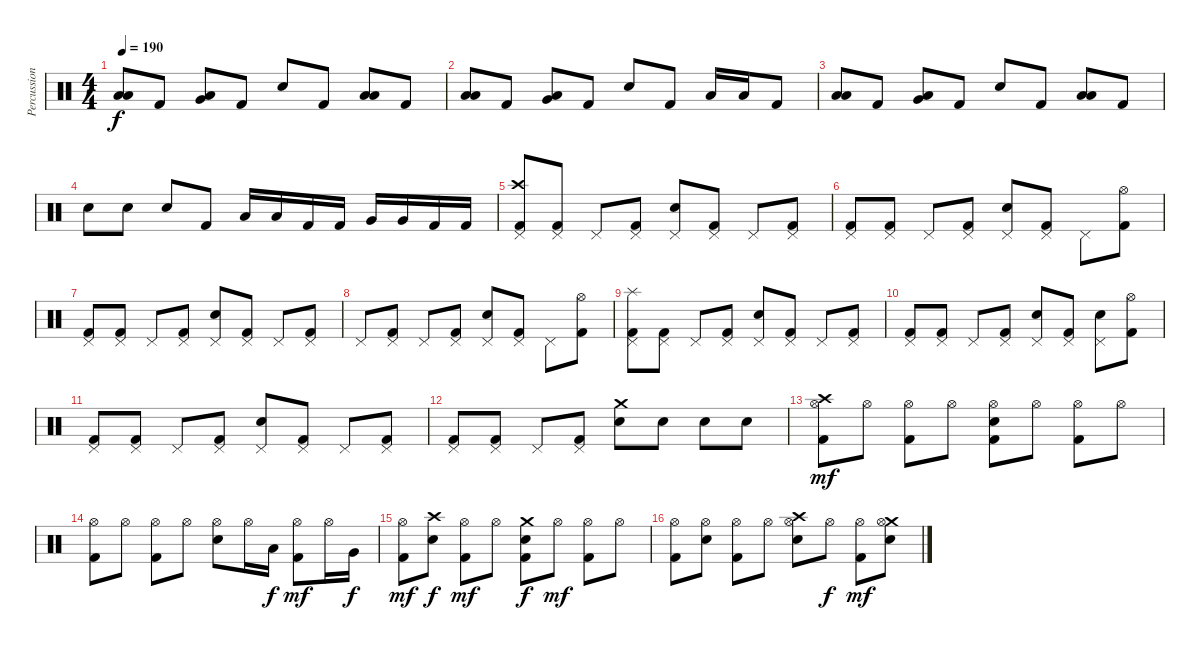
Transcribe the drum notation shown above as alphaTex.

\track ("Percussion" "Percussion") {instrument percussion}
\staff {score}
\articulation defaults
\ts (4 4)
\tempo 190
\clef neutral
\ks c
("Low Tom (hit)" "Low Tom (hit)").8{dy f} "Kick (hit) 2".8 ("Low Floor Tom (hit)" "Very Low Tom (hit)").8 "Kick (hit) 2".8 "Electric Snare (hit)".8 "Kick (hit) 2".8 ("Low Floor Tom (hit)" "Low Floor Tom (hit)").8 "Kick (hit) 2".8 |
("Low Tom (hit)" "Low Tom (hit)").8 "Kick (hit) 2".8 ("Low Floor Tom (hit)" "Very Low Tom (hit)").8 "Kick (hit) 2".8 "Electric Snare (hit)".8 "Kick (hit) 2".8 "Low Floor Tom (hit)".16 "Low Floor Tom (hit)".16 "Kick (hit) 2".8 |
("Low Tom (hit)" "Low Tom (hit)").8 "Kick (hit) 2".8 ("Low Floor Tom (hit)" "Very Low Tom (hit)").8 "Kick (hit) 2".8 "Electric Snare (hit)".8 "Kick (hit) 2".8 ("Low Floor Tom (hit)" "Low Floor Tom (hit)").8 "Kick (hit) 2".8 |
"Electric Snare (hit)".8 "Electric Snare (hit)".8 "Electric Snare (hit)".8 "Kick (hit) 2".8 "Low Tom (hit)".16 "Low Tom (hit)".16 "Kick (hit) 2".16 "Kick (hit) 2".16 "Very Low Tom (hit)".16 "Very Low Tom (hit)".16 "Kick (hit) 2".16 "Kick (hit) 2".16 |
("Crash high (hit)" "Pedal Hi-Hat (hit)" "Kick (hit) 2").8 ("Pedal Hi-Hat (hit)" "Kick (hit) 2").8 "Pedal Hi-Hat (hit)".8 ("Pedal Hi-Hat (hit)" "Kick (hit) 2").8 ("Pedal Hi-Hat (hit)" "Electric Snare (hit)").8 ("Pedal Hi-Hat (hit)" "Kick (hit) 2").8 "Pedal Hi-Hat (hit)".8 ("Pedal Hi-Hat (hit)" "Kick (hit) 2").8 |
("Pedal Hi-Hat (hit)" "Kick (hit) 2").8 ("Pedal Hi-Hat (hit)" "Kick (hit) 2").8 "Pedal Hi-Hat (hit)".8 ("Pedal Hi-Hat (hit)" "Kick (hit) 2").8 ("Pedal Hi-Hat (hit)" "Electric Snare (hit)").8 ("Pedal Hi-Hat (hit)" "Kick (hit) 2").8 "Pedal Hi-Hat (hit)".8 ("Hi-Hat (open)" "Kick (hit) 2").8 |
("Pedal Hi-Hat (hit)" "Kick (hit) 2").8 ("Pedal Hi-Hat (hit)" "Kick (hit) 2").8 "Pedal Hi-Hat (hit)".8 ("Pedal Hi-Hat (hit)" "Kick (hit) 2").8 ("Pedal Hi-Hat (hit)" "Electric Snare (hit)").8 ("Pedal Hi-Hat (hit)" "Kick (hit) 2").8 "Pedal Hi-Hat (hit)".8 ("Pedal Hi-Hat (hit)" "Kick (hit) 2").8 |
"Pedal Hi-Hat (hit)".8 ("Pedal Hi-Hat (hit)" "Kick (hit) 2").8 "Pedal Hi-Hat (hit)".8 ("Pedal Hi-Hat (hit)" "Kick (hit) 2").8 ("Pedal Hi-Hat (hit)" "Electric Snare (hit)").8 ("Pedal Hi-Hat (hit)" "Kick (hit) 2").8 "Pedal Hi-Hat (hit)".8 ("Hi-Hat (open)" "Kick (hit) 2").8 |
("Splash (hit)" "Pedal Hi-Hat (hit)" "Kick (hit) 2").8 ("Pedal Hi-Hat (hit)" "Kick (hit) 2").8 "Pedal Hi-Hat (hit)".8 ("Pedal Hi-Hat (hit)" "Kick (hit) 2").8 ("Pedal Hi-Hat (hit)" "Electric Snare (hit)").8 ("Pedal Hi-Hat (hit)" "Kick (hit) 2").8 "Pedal Hi-Hat (hit)".8 ("Pedal Hi-Hat (hit)" "Kick (hit) 2").8 |
("Pedal Hi-Hat (hit)" "Kick (hit) 2").8 ("Pedal Hi-Hat (hit)" "Kick (hit) 2").8 "Pedal Hi-Hat (hit)".8 ("Pedal Hi-Hat (hit)" "Kick (hit) 2").8 ("Pedal Hi-Hat (hit)" "Electric Snare (hit)").8 ("Pedal Hi-Hat (hit)" "Kick (hit) 2").8 ("Pedal Hi-Hat (hit)" "Electric Snare (hit)").8 ("Hi-Hat (open)" "Kick (hit) 2").8 |
("Pedal Hi-Hat (hit)" "Kick (hit) 2").8 ("Pedal Hi-Hat (hit)" "Kick (hit) 2").8 "Pedal Hi-Hat (hit)".8 ("Pedal Hi-Hat (hit)" "Kick (hit) 2").8 ("Pedal Hi-Hat (hit)" "Electric Snare (hit)").8 ("Pedal Hi-Hat (hit)" "Kick (hit) 2").8 "Pedal Hi-Hat (hit)".8 ("Pedal Hi-Hat (hit)" "Kick (hit) 2").8 |
("Pedal Hi-Hat (hit)" "Kick (hit) 2").8 ("Pedal Hi-Hat (hit)" "Kick (hit) 2").8 "Pedal Hi-Hat (hit)".8 ("Pedal Hi-Hat (hit)" "Kick (hit) 2").8 ("Crash medium (hit)" "Electric Snare (hit)").8 "Electric Snare (hit)".8 "Electric Snare (hit)".8 "Electric Snare (hit)".8 |
("Crash high (hit)" "Hi-Hat (open)" "Kick (hit) 2").8{dy mf} "Hi-Hat (open)".8 ("Hi-Hat (open)" "Kick (hit) 2").8 "Hi-Hat (open)".8 ("Hi-Hat (open)" "Electric Snare (hit)" "Kick (hit) 2").8 "Hi-Hat (open)".8 ("Hi-Hat (open)" "Kick (hit) 2").8 "Hi-Hat (open)".8 |
("Hi-Hat (open)" "Kick (hit) 2").8 "Hi-Hat (open)".8 ("Hi-Hat (open)" "Kick (hit) 2").8 "Hi-Hat (open)".8 ("Hi-Hat (open)" "Electric Snare (hit)").8 "Hi-Hat (open)".16 "Low Tom (hit)".16{dy f} ("Hi-Hat (open)" "Kick (hit) 2").8{dy mf} "Hi-Hat (open)".16 "Very Low Tom (hit)".16{dy f} |
("Hi-Hat (open)" "Kick (hit) 2").8{dy mf} ("Crash high (hit)" "Electric Snare (hit)").8{dy f} ("Hi-Hat (open)" "Kick (hit) 2").8{dy mf} "Hi-Hat (open)".8 ("Crash medium (hit)" "Electric Snare (hit)" "Kick (hit) 2").8{dy f} "Hi-Hat (open)".8{dy mf} ("Hi-Hat (open)" "Kick (hit) 2").8 "Hi-Hat (open)".8 |
("Hi-Hat (open)" "Kick (hit) 2").8 ("Hi-Hat (open)" "Electric Snare (hit)").8 ("Hi-Hat (open)" "Kick (hit) 2").8 "Hi-Hat (open)".8 ("Crash high (hit)" "Hi-Hat (open)" "Electric Snare (hit)").8 "Hi-Hat (open)".8{dy f} ("Hi-Hat (open)" "Kick (hit) 2").8{dy mf} ("Crash medium (hit)" "Hi-Hat (open)" "Electric Snare (hit)").8
